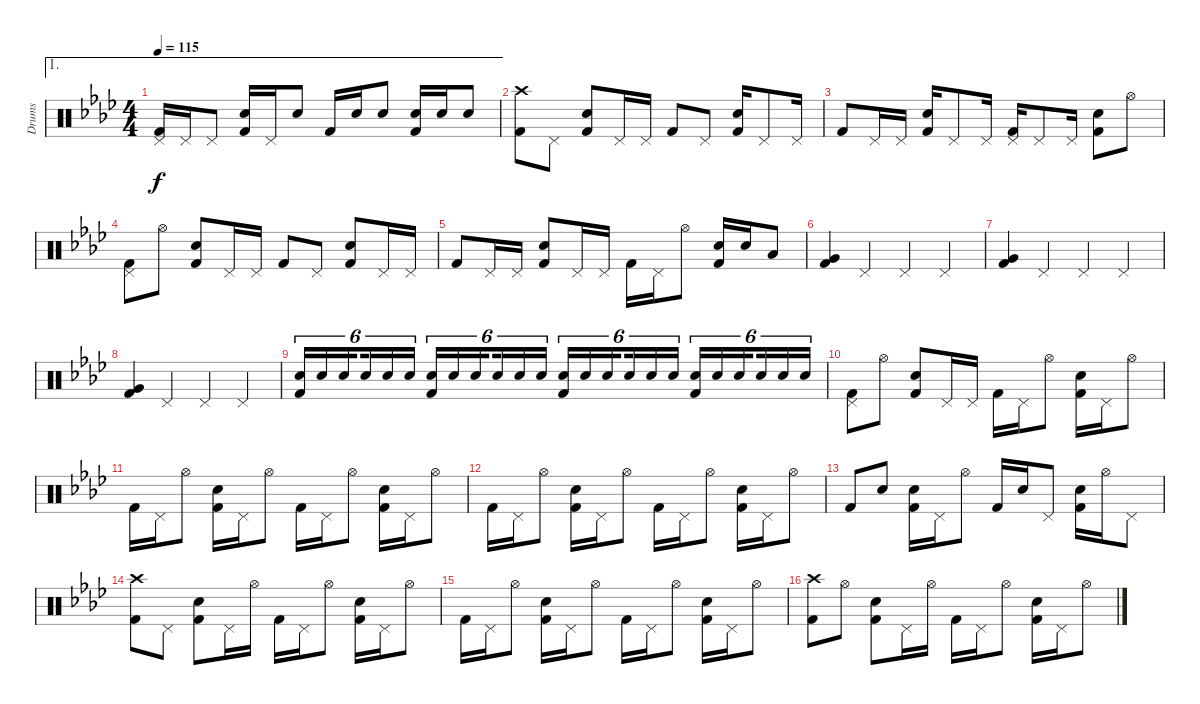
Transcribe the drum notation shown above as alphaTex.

\track ("Drums" "Drums") {instrument percussion}
\staff {score}
\articulation defaults
\ae 1
\ts (4 4)
\tempo 115
\clef neutral
\ks ab
("Pedal Hi-Hat (hit)" "Kick (hit) 2").16{dy f} "Pedal Hi-Hat (hit)".16 "Pedal Hi-Hat (hit)".8 ("Electric Snare (hit)" "Kick (hit) 2").16 "Pedal Hi-Hat (hit)".16 "Electric Snare (hit)".8 "Kick (hit) 2".16 "Electric Snare (hit)".16 "Electric Snare (hit)".8 ("Electric Snare (hit)" "Kick (hit) 2").16 "Electric Snare (hit)".16 "Electric Snare (hit)".8 |
("Crash high (hit)" "Kick (hit) 2").8 "Pedal Hi-Hat (hit)".8 ("Electric Snare (hit)" "Kick (hit) 2").8 "Pedal Hi-Hat (hit)".16 "Pedal Hi-Hat (hit)".16 "Kick (hit) 2".8 "Pedal Hi-Hat (hit)".8 ("Electric Snare (hit)" "Kick (hit) 2").16 "Pedal Hi-Hat (hit)".8 "Pedal Hi-Hat (hit)".16 |
"Kick (hit) 2".8 "Pedal Hi-Hat (hit)".16 "Pedal Hi-Hat (hit)".16 ("Electric Snare (hit)" "Kick (hit) 2").16 "Pedal Hi-Hat (hit)".8 "Pedal Hi-Hat (hit)".16 ("Pedal Hi-Hat (hit)" "Kick (hit) 2").16 "Pedal Hi-Hat (hit)".8 "Pedal Hi-Hat (hit)".16 ("Electric Snare (hit)" "Kick (hit) 2").8 "Hi-Hat (open)".8 |
("Pedal Hi-Hat (hit)" "Kick (hit) 2").8 "Hi-Hat (open)".8 ("Electric Snare (hit)" "Kick (hit) 2").8 "Pedal Hi-Hat (hit)".16 "Pedal Hi-Hat (hit)".16 "Kick (hit) 2".8 "Pedal Hi-Hat (hit)".8 ("Electric Snare (hit)" "Kick (hit) 2").8 "Pedal Hi-Hat (hit)".16 "Pedal Hi-Hat (hit)".16 |
"Kick (hit) 2".8 "Pedal Hi-Hat (hit)".16 "Pedal Hi-Hat (hit)".16 ("Electric Snare (hit)" "Kick (hit) 2").8 "Pedal Hi-Hat (hit)".16 "Pedal Hi-Hat (hit)".16 "Kick (hit) 2".16 "Pedal Hi-Hat (hit)".16 "Hi-Hat (open)".8 ("Electric Snare (hit)" "Kick (hit) 2").16 "Electric Snare (hit)".16 "Low Tom (hit)".8 |
("Very Low Tom (hit)" "Kick (hit) 2").4 "Pedal Hi-Hat (hit)".4 "Pedal Hi-Hat (hit)".4 "Pedal Hi-Hat (hit)".4 |
("Very Low Tom (hit)" "Kick (hit) 2").4 "Pedal Hi-Hat (hit)".4 "Pedal Hi-Hat (hit)".4 "Pedal Hi-Hat (hit)".4 |
("Very Low Tom (hit)" "Kick (hit) 2").4 "Pedal Hi-Hat (hit)".4 "Pedal Hi-Hat (hit)".4 "Pedal Hi-Hat (hit)".4 |
("Electric Snare (hit)" "Kick (hit) 2").16{tu (6 4)} "Electric Snare (hit)".16{tu (6 4)} "Electric Snare (hit)".16{tu (6 4) beam splitsecondary} "Electric Snare (hit)".16{tu (6 4)} "Electric Snare (hit)".16{tu (6 4)} "Electric Snare (hit)".16{tu (6 4)} ("Electric Snare (hit)" "Kick (hit) 2").16{tu (6 4)} "Electric Snare (hit)".16{tu (6 4)} "Electric Snare (hit)".16{tu (6 4) beam splitsecondary} "Electric Snare (hit)".16{tu (6 4)} "Electric Snare (hit)".16{tu (6 4)} "Electric Snare (hit)".16{tu (6 4)} ("Electric Snare (hit)" "Kick (hit) 2").16{tu (6 4)} "Electric Snare (hit)".16{tu (6 4)} "Electric Snare (hit)".16{tu (6 4) beam splitsecondary} "Electric Snare (hit)".16{tu (6 4)} "Electric Snare (hit)".16{tu (6 4)} "Electric Snare (hit)".16{tu (6 4)} ("Electric Snare (hit)" "Kick (hit) 2").16{tu (6 4)} "Electric Snare (hit)".16{tu (6 4)} "Electric Snare (hit)".16{tu (6 4) beam splitsecondary} "Electric Snare (hit)".16{tu (6 4)} "Electric Snare (hit)".16{tu (6 4)} "Electric Snare (hit)".16{tu (6 4)} |
("Pedal Hi-Hat (hit)" "Kick (hit) 2").8 "Hi-Hat (open)".8 ("Electric Snare (hit)" "Kick (hit) 2").8 "Pedal Hi-Hat (hit)".16 "Pedal Hi-Hat (hit)".16 "Kick (hit) 2".16 "Pedal Hi-Hat (hit)".16 "Hi-Hat (open)".8 ("Electric Snare (hit)" "Kick (hit) 2").16 "Pedal Hi-Hat (hit)".16 "Hi-Hat (open)".8 |
"Kick (hit) 2".16 "Pedal Hi-Hat (hit)".16 "Hi-Hat (open)".8 ("Electric Snare (hit)" "Kick (hit) 2").16 "Pedal Hi-Hat (hit)".16 "Hi-Hat (open)".8 "Kick (hit) 2".16 "Pedal Hi-Hat (hit)".16 "Hi-Hat (open)".8 ("Electric Snare (hit)" "Kick (hit) 2").16 "Pedal Hi-Hat (hit)".16 "Hi-Hat (open)".8 |
"Kick (hit) 2".16 "Pedal Hi-Hat (hit)".16 "Hi-Hat (open)".8 ("Electric Snare (hit)" "Kick (hit) 2").16 "Pedal Hi-Hat (hit)".16 "Hi-Hat (open)".8 "Kick (hit) 2".16 "Pedal Hi-Hat (hit)".16 "Hi-Hat (open)".8 ("Electric Snare (hit)" "Kick (hit) 2").16 "Pedal Hi-Hat (hit)".16 "Hi-Hat (open)".8 |
"Kick (hit) 2".8 "Electric Snare (hit)".8 ("Electric Snare (hit)" "Kick (hit) 2").16 "Pedal Hi-Hat (hit)".16 "Hi-Hat (open)".8 "Kick (hit) 2".16 "Electric Snare (hit)".16 "Pedal Hi-Hat (hit)".8 ("Electric Snare (hit)" "Kick (hit) 2").16 "Hi-Hat (open)".16 "Pedal Hi-Hat (hit)".8 |
("Crash high (hit)" "Kick (hit) 2").8 "Pedal Hi-Hat (hit)".8 ("Electric Snare (hit)" "Kick (hit) 2").8 "Pedal Hi-Hat (hit)".16 "Hi-Hat (open)".16 "Kick (hit) 2".16 "Pedal Hi-Hat (hit)".16 "Hi-Hat (open)".8 ("Electric Snare (hit)" "Kick (hit) 2").16 "Pedal Hi-Hat (hit)".16 "Hi-Hat (open)".8 |
"Kick (hit) 2".16 "Pedal Hi-Hat (hit)".16 "Hi-Hat (open)".8 ("Electric Snare (hit)" "Kick (hit) 2").16 "Pedal Hi-Hat (hit)".16 "Hi-Hat (open)".8 "Kick (hit) 2".16 "Pedal Hi-Hat (hit)".16 "Hi-Hat (open)".8 ("Electric Snare (hit)" "Kick (hit) 2").16 "Pedal Hi-Hat (hit)".16 "Hi-Hat (open)".8 |
("Crash high (hit)" "Kick (hit) 2").8 "Hi-Hat (open)".8 ("Electric Snare (hit)" "Kick (hit) 2").8 "Pedal Hi-Hat (hit)".16 "Hi-Hat (open)".16 "Kick (hit) 2".16 "Pedal Hi-Hat (hit)".16 "Hi-Hat (open)".8 ("Electric Snare (hit)" "Kick (hit) 2").16 "Pedal Hi-Hat (hit)".16 "Hi-Hat (open)".8
